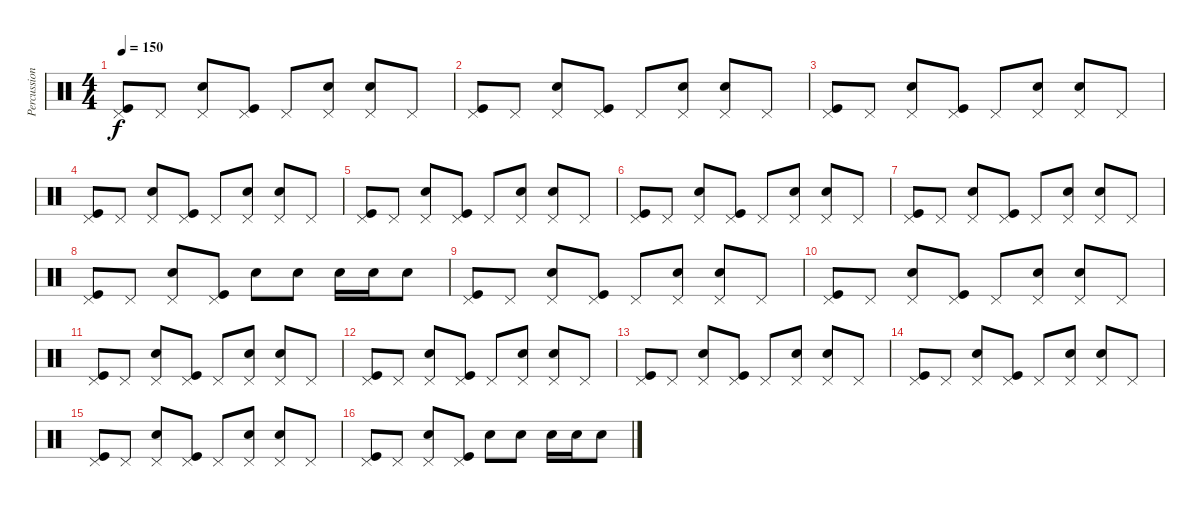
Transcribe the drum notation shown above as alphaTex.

\track ("Percussion" "Percussion") {instrument percussion}
\staff {score}
\articulation defaults
\ts (4 4)
\tempo 150
\clef neutral
\ks c
("Kick (hit)" "Pedal Hi-Hat (hit)").8{dy f} "Pedal Hi-Hat (hit)".8 ("Electric Snare (hit)" "Pedal Hi-Hat (hit)").8 ("Kick (hit)" "Pedal Hi-Hat (hit)").8 "Pedal Hi-Hat (hit)".8 ("Electric Snare (hit)" "Pedal Hi-Hat (hit)").8 ("Electric Snare (hit)" "Pedal Hi-Hat (hit)").8 "Pedal Hi-Hat (hit)".8 |
("Kick (hit)" "Pedal Hi-Hat (hit)").8 "Pedal Hi-Hat (hit)".8 ("Electric Snare (hit)" "Pedal Hi-Hat (hit)").8 ("Kick (hit)" "Pedal Hi-Hat (hit)").8 "Pedal Hi-Hat (hit)".8 ("Electric Snare (hit)" "Pedal Hi-Hat (hit)").8 ("Electric Snare (hit)" "Pedal Hi-Hat (hit)").8 "Pedal Hi-Hat (hit)".8 |
("Kick (hit)" "Pedal Hi-Hat (hit)").8 "Pedal Hi-Hat (hit)".8 ("Electric Snare (hit)" "Pedal Hi-Hat (hit)").8 ("Kick (hit)" "Pedal Hi-Hat (hit)").8 "Pedal Hi-Hat (hit)".8 ("Electric Snare (hit)" "Pedal Hi-Hat (hit)").8 ("Electric Snare (hit)" "Pedal Hi-Hat (hit)").8 "Pedal Hi-Hat (hit)".8 |
("Kick (hit)" "Pedal Hi-Hat (hit)").8 "Pedal Hi-Hat (hit)".8 ("Electric Snare (hit)" "Pedal Hi-Hat (hit)").8 ("Kick (hit)" "Pedal Hi-Hat (hit)").8 "Pedal Hi-Hat (hit)".8 ("Electric Snare (hit)" "Pedal Hi-Hat (hit)").8 ("Electric Snare (hit)" "Pedal Hi-Hat (hit)").8 "Pedal Hi-Hat (hit)".8 |
("Kick (hit)" "Pedal Hi-Hat (hit)").8 "Pedal Hi-Hat (hit)".8 ("Electric Snare (hit)" "Pedal Hi-Hat (hit)").8 ("Kick (hit)" "Pedal Hi-Hat (hit)").8 "Pedal Hi-Hat (hit)".8 ("Electric Snare (hit)" "Pedal Hi-Hat (hit)").8 ("Electric Snare (hit)" "Pedal Hi-Hat (hit)").8 "Pedal Hi-Hat (hit)".8 |
("Kick (hit)" "Pedal Hi-Hat (hit)").8 "Pedal Hi-Hat (hit)".8 ("Electric Snare (hit)" "Pedal Hi-Hat (hit)").8 ("Kick (hit)" "Pedal Hi-Hat (hit)").8 "Pedal Hi-Hat (hit)".8 ("Electric Snare (hit)" "Pedal Hi-Hat (hit)").8 ("Electric Snare (hit)" "Pedal Hi-Hat (hit)").8 "Pedal Hi-Hat (hit)".8 |
("Kick (hit)" "Pedal Hi-Hat (hit)").8 "Pedal Hi-Hat (hit)".8 ("Electric Snare (hit)" "Pedal Hi-Hat (hit)").8 ("Kick (hit)" "Pedal Hi-Hat (hit)").8 "Pedal Hi-Hat (hit)".8 ("Electric Snare (hit)" "Pedal Hi-Hat (hit)").8 ("Electric Snare (hit)" "Pedal Hi-Hat (hit)").8 "Pedal Hi-Hat (hit)".8 |
("Kick (hit)" "Pedal Hi-Hat (hit)").8 "Pedal Hi-Hat (hit)".8 ("Electric Snare (hit)" "Pedal Hi-Hat (hit)").8 ("Kick (hit)" "Pedal Hi-Hat (hit)").8 "Electric Snare (hit)".8 "Electric Snare (hit)".8 "Electric Snare (hit)".16 "Electric Snare (hit)".16 "Electric Snare (hit)".8 |
("Kick (hit)" "Pedal Hi-Hat (hit)").8 "Pedal Hi-Hat (hit)".8 ("Electric Snare (hit)" "Pedal Hi-Hat (hit)").8 ("Kick (hit)" "Pedal Hi-Hat (hit)").8 "Pedal Hi-Hat (hit)".8 ("Electric Snare (hit)" "Pedal Hi-Hat (hit)").8 ("Electric Snare (hit)" "Pedal Hi-Hat (hit)").8 "Pedal Hi-Hat (hit)".8 |
("Kick (hit)" "Pedal Hi-Hat (hit)").8 "Pedal Hi-Hat (hit)".8 ("Electric Snare (hit)" "Pedal Hi-Hat (hit)").8 ("Kick (hit)" "Pedal Hi-Hat (hit)").8 "Pedal Hi-Hat (hit)".8 ("Electric Snare (hit)" "Pedal Hi-Hat (hit)").8 ("Electric Snare (hit)" "Pedal Hi-Hat (hit)").8 "Pedal Hi-Hat (hit)".8 |
("Kick (hit)" "Pedal Hi-Hat (hit)").8 "Pedal Hi-Hat (hit)".8 ("Electric Snare (hit)" "Pedal Hi-Hat (hit)").8 ("Kick (hit)" "Pedal Hi-Hat (hit)").8 "Pedal Hi-Hat (hit)".8 ("Electric Snare (hit)" "Pedal Hi-Hat (hit)").8 ("Electric Snare (hit)" "Pedal Hi-Hat (hit)").8 "Pedal Hi-Hat (hit)".8 |
("Kick (hit)" "Pedal Hi-Hat (hit)").8 "Pedal Hi-Hat (hit)".8 ("Electric Snare (hit)" "Pedal Hi-Hat (hit)").8 ("Kick (hit)" "Pedal Hi-Hat (hit)").8 "Pedal Hi-Hat (hit)".8 ("Electric Snare (hit)" "Pedal Hi-Hat (hit)").8 ("Electric Snare (hit)" "Pedal Hi-Hat (hit)").8 "Pedal Hi-Hat (hit)".8 |
("Kick (hit)" "Pedal Hi-Hat (hit)").8 "Pedal Hi-Hat (hit)".8 ("Electric Snare (hit)" "Pedal Hi-Hat (hit)").8 ("Kick (hit)" "Pedal Hi-Hat (hit)").8 "Pedal Hi-Hat (hit)".8 ("Electric Snare (hit)" "Pedal Hi-Hat (hit)").8 ("Electric Snare (hit)" "Pedal Hi-Hat (hit)").8 "Pedal Hi-Hat (hit)".8 |
("Kick (hit)" "Pedal Hi-Hat (hit)").8 "Pedal Hi-Hat (hit)".8 ("Electric Snare (hit)" "Pedal Hi-Hat (hit)").8 ("Kick (hit)" "Pedal Hi-Hat (hit)").8 "Pedal Hi-Hat (hit)".8 ("Electric Snare (hit)" "Pedal Hi-Hat (hit)").8 ("Electric Snare (hit)" "Pedal Hi-Hat (hit)").8 "Pedal Hi-Hat (hit)".8 |
("Kick (hit)" "Pedal Hi-Hat (hit)").8 "Pedal Hi-Hat (hit)".8 ("Electric Snare (hit)" "Pedal Hi-Hat (hit)").8 ("Kick (hit)" "Pedal Hi-Hat (hit)").8 "Pedal Hi-Hat (hit)".8 ("Electric Snare (hit)" "Pedal Hi-Hat (hit)").8 ("Electric Snare (hit)" "Pedal Hi-Hat (hit)").8 "Pedal Hi-Hat (hit)".8 |
("Kick (hit)" "Pedal Hi-Hat (hit)").8 "Pedal Hi-Hat (hit)".8 ("Electric Snare (hit)" "Pedal Hi-Hat (hit)").8 ("Kick (hit)" "Pedal Hi-Hat (hit)").8 "Electric Snare (hit)".8 "Electric Snare (hit)".8 "Electric Snare (hit)".16 "Electric Snare (hit)".16 "Electric Snare (hit)".8
